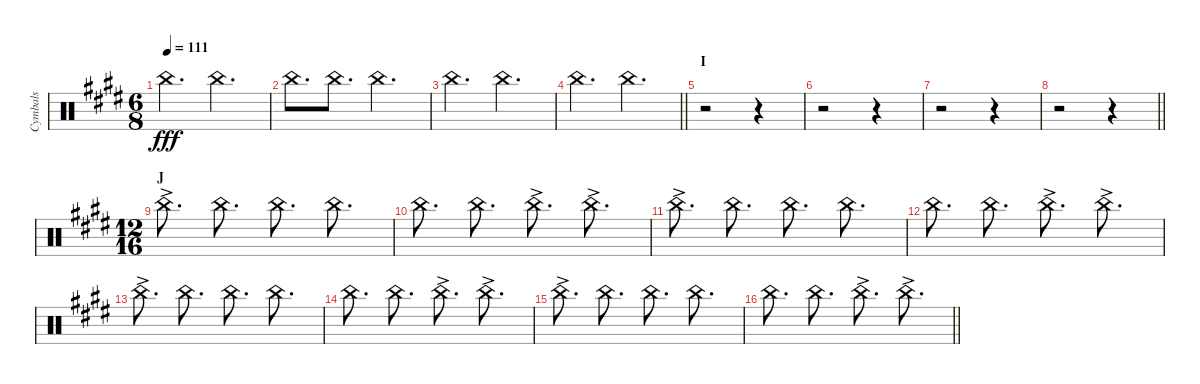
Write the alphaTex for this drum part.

\track ("Cymbals" "Cymbals") {instrument percussion}
\staff {score}
\articulation defaults
\ts (6 8)
\tempo 111
\clef neutral
\ks e "China (hit)".4{d dy fff} "China (hit)".4{d}
|
"China (hit)".8{d} "China (hit)".8{d} "China (hit)".4{d} |
"China (hit)".4{d} "China (hit)".4{d} |
\barLineRight lightlight "China (hit)".4{d} "China (hit)".4{d}
|
\section ("" "I")
r.2 r.4 |
r.2 r.4 |
r.2 r.4 |
\barLineRight lightlight
r.2 r.4 |
\ts (12 16)
\section ("" "J")
"China (hit)"{ac}.8{d} "China (hit)".8{d} "China (hit)".8{d} "China (hit)".8{d} |
"China (hit)".8{d} "China (hit)".8{d} "China (hit)"{ac}.8{d} "China (hit)"{ac}.8{d} |
"China (hit)"{ac}.8{d} "China (hit)".8{d} "China (hit)".8{d} "China (hit)".8{d} |
"China (hit)".8{d} "China (hit)".8{d} "China (hit)"{ac}.8{d} "China (hit)"{ac}.8{d} |
"China (hit)"{ac}.8{d} "China (hit)".8{d} "China (hit)".8{d} "China (hit)".8{d} |
"China (hit)".8{d} "China (hit)".8{d} "China (hit)"{ac}.8{d} "China (hit)"{ac}.8{d} |
"China (hit)"{ac}.8{d} "China (hit)".8{d} "China (hit)".8{d} "China (hit)".8{d} |
\barLineRight lightlight "China (hit)".8{d} "China (hit)".8{d} "China (hit)"{ac}.8{d} "China (hit)"{ac}.8{d}
